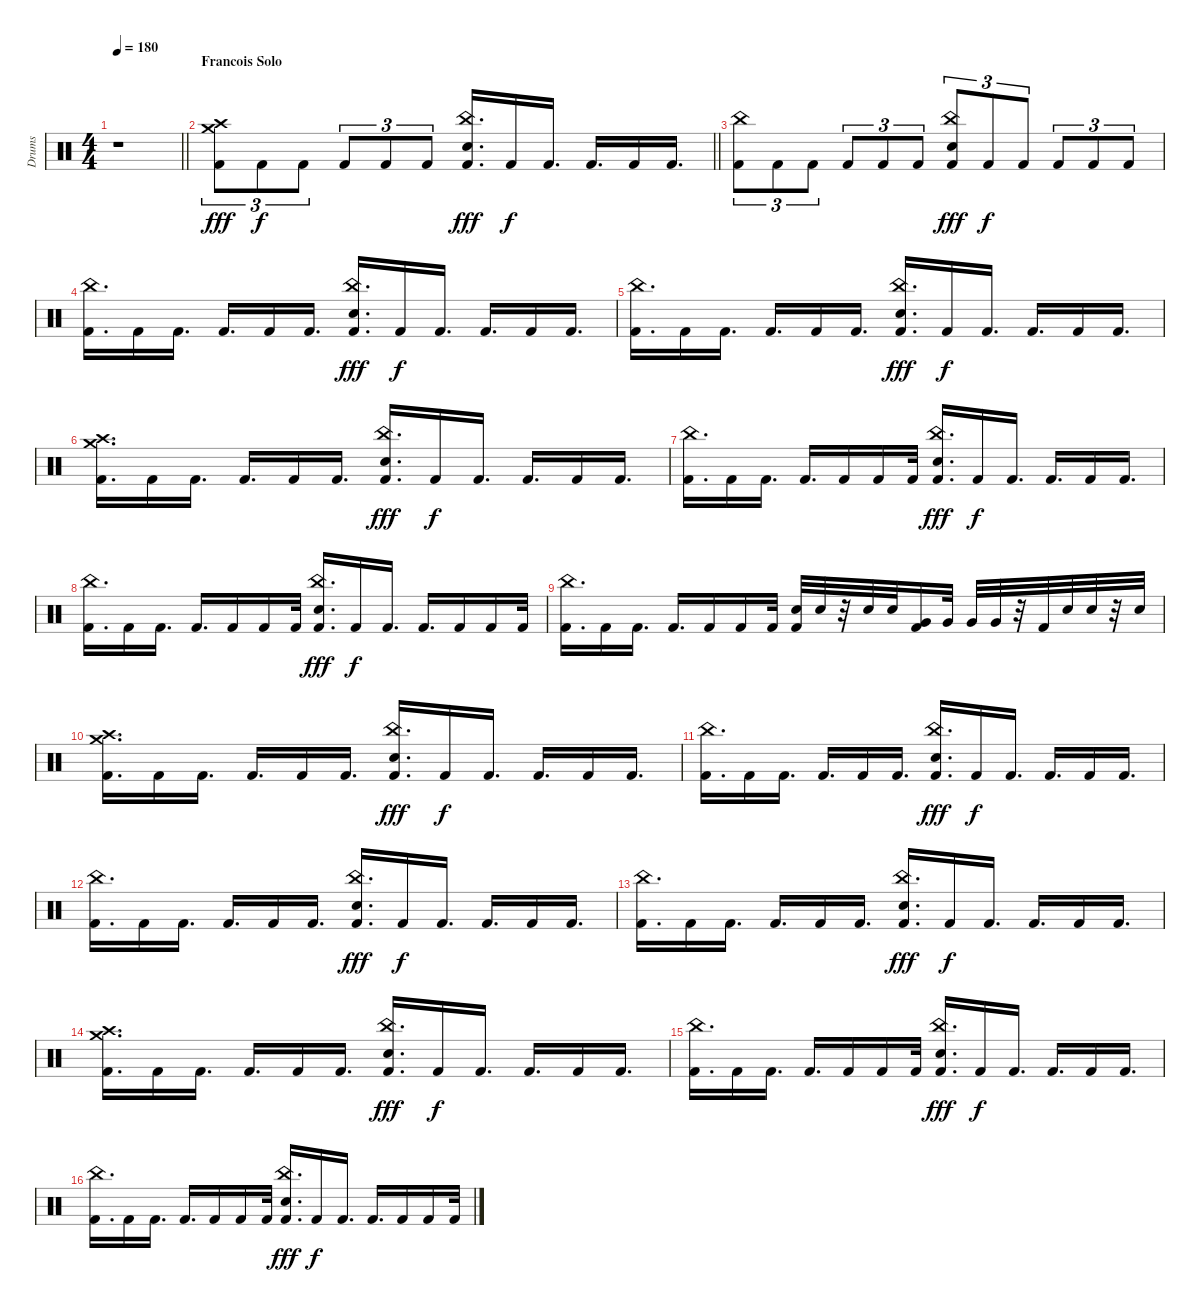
\track ("Drums" "Drums") {instrument percussion}
\staff {score}
\articulation defaults
\ts (4 4)
\tempo 180
\clef neutral
\barLineRight lightlight
\ks c
r.1{dy fff} |
\section ("" "Francois Solo")
\barLineRight lightlight
("Crash high (hit)" "Crash medium (hit)" "Kick (hit) 2").8{tu (3 2)} "Kick (hit) 2".8{tu (3 2) dy f} "Kick (hit) 2".8{tu (3 2)} "Kick (hit) 2".8{tu (3 2)} "Kick (hit) 2".8{tu (3 2)} "Kick (hit) 2".8{tu (3 2)} ("China (hit)" "Snare (hit) 2" "Kick (hit) 2").16{d dy fff} "Kick (hit) 2".16{dy f} "Kick (hit) 2".16{d} "Kick (hit) 2".16{d} "Kick (hit) 2".16 "Kick (hit) 2".16{d} |
("China (hit)" "Kick (hit) 2").8{tu (3 2)} "Kick (hit) 2".8{tu (3 2)} "Kick (hit) 2".8{tu (3 2)} "Kick (hit) 2".8{tu (3 2)} "Kick (hit) 2".8{tu (3 2)} "Kick (hit) 2".8{tu (3 2)} ("China (hit)" "Kick (hit) 2" "Snare (hit) 2").8{tu (3 2) dy fff} "Kick (hit) 2".8{tu (3 2) dy f} "Kick (hit) 2".8{tu (3 2)} "Kick (hit) 2".8{tu (3 2)} "Kick (hit) 2".8{tu (3 2)} "Kick (hit) 2".8{tu (3 2)} |
("China (hit)" "Kick (hit) 2").16{d} "Kick (hit) 2".16 "Kick (hit) 2".16{d} "Kick (hit) 2".16{d} "Kick (hit) 2".16 "Kick (hit) 2".16{d} ("China (hit)" "Snare (hit) 2" "Kick (hit) 2").16{d dy fff} "Kick (hit) 2".16{dy f} "Kick (hit) 2".16{d} "Kick (hit) 2".16{d} "Kick (hit) 2".16 "Kick (hit) 2".16{d} |
("China (hit)" "Kick (hit) 2").16{d} "Kick (hit) 2".16 "Kick (hit) 2".16{d} "Kick (hit) 2".16{d} "Kick (hit) 2".16 "Kick (hit) 2".16{d} ("China (hit)" "Kick (hit) 2" "Snare (hit) 2").16{d dy fff} "Kick (hit) 2".16{dy f} "Kick (hit) 2".16{d} "Kick (hit) 2".16{d} "Kick (hit) 2".16 "Kick (hit) 2".16{d} |
("Crash high (hit)" "Crash medium (hit)" "Kick (hit) 2").16{d} "Kick (hit) 2".16 "Kick (hit) 2".16{d} "Kick (hit) 2".16{d} "Kick (hit) 2".16 "Kick (hit) 2".16{d} ("China (hit)" "Snare (hit) 2" "Kick (hit) 2").16{d dy fff} "Kick (hit) 2".16{dy f} "Kick (hit) 2".16{d} "Kick (hit) 2".16{d} "Kick (hit) 2".16 "Kick (hit) 2".16{d} |
("China (hit)" "Kick (hit) 2").16{d} "Kick (hit) 2".16 "Kick (hit) 2".16{d} "Kick (hit) 2".16{d} "Kick (hit) 2".16 "Kick (hit) 2".16 "Kick (hit) 2".32 ("China (hit)" "Kick (hit) 2" "Snare (hit) 2").16{d dy fff} "Kick (hit) 2".16{dy f} "Kick (hit) 2".16{d} "Kick (hit) 2".16{d} "Kick (hit) 2".16 "Kick (hit) 2".16{d} |
("Kick (hit) 2" "China (hit)").16{d} "Kick (hit) 2".16 "Kick (hit) 2".16{d} "Kick (hit) 2".16{d} "Kick (hit) 2".16 "Kick (hit) 2".16 "Kick (hit) 2".32 ("China (hit)" "Snare (hit) 2" "Kick (hit) 2").16{d dy fff} "Kick (hit) 2".16{dy f} "Kick (hit) 2".16{d} "Kick (hit) 2".16{d} "Kick (hit) 2".16 "Kick (hit) 2".16 "Kick (hit) 2".32 |
("China (hit)" "Kick (hit) 2").16{d} "Kick (hit) 2".16 "Kick (hit) 2".16{d} "Kick (hit) 2".16{d} "Kick (hit) 2".16 "Kick (hit) 2".16 "Kick (hit) 2".32 ("Kick (hit) 2" "Snare (hit) 2").32 "Snare (hit) 2".32 r.32 "Snare (hit) 2".32 "Snare (hit) 2".32 ("Kick (hit) 2" "Very Low Tom (hit)").16 "Very Low Tom (hit)".32 "Very Low Tom (hit)".32 "Very Low Tom (hit)".32 r.32 "Kick (hit) 2".32 "Snare (hit) 2".32 "Snare (hit) 2".32 r.32 "Snare (hit) 2".32 |
("Crash high (hit)" "Crash medium (hit)" "Kick (hit) 2").16{d} "Kick (hit) 2".16 "Kick (hit) 2".16{d} "Kick (hit) 2".16{d} "Kick (hit) 2".16 "Kick (hit) 2".16{d} ("China (hit)" "Snare (hit) 2" "Kick (hit) 2").16{d dy fff} "Kick (hit) 2".16{dy f} "Kick (hit) 2".16{d} "Kick (hit) 2".16{d} "Kick (hit) 2".16 "Kick (hit) 2".16{d} |
("China (hit)" "Kick (hit) 2").16{d} "Kick (hit) 2".16 "Kick (hit) 2".16{d} "Kick (hit) 2".16{d} "Kick (hit) 2".16 "Kick (hit) 2".16{d} ("China (hit)" "Kick (hit) 2" "Snare (hit) 2").16{d dy fff} "Kick (hit) 2".16{dy f} "Kick (hit) 2".16{d} "Kick (hit) 2".16{d} "Kick (hit) 2".16 "Kick (hit) 2".16{d} |
("China (hit)" "Kick (hit) 2").16{d} "Kick (hit) 2".16 "Kick (hit) 2".16{d} "Kick (hit) 2".16{d} "Kick (hit) 2".16 "Kick (hit) 2".16{d} ("China (hit)" "Snare (hit) 2" "Kick (hit) 2").16{d dy fff} "Kick (hit) 2".16{dy f} "Kick (hit) 2".16{d} "Kick (hit) 2".16{d} "Kick (hit) 2".16 "Kick (hit) 2".16{d} |
("China (hit)" "Kick (hit) 2").16{d} "Kick (hit) 2".16 "Kick (hit) 2".16{d} "Kick (hit) 2".16{d} "Kick (hit) 2".16 "Kick (hit) 2".16{d} ("China (hit)" "Kick (hit) 2" "Snare (hit) 2").16{d dy fff} "Kick (hit) 2".16{dy f} "Kick (hit) 2".16{d} "Kick (hit) 2".16{d} "Kick (hit) 2".16 "Kick (hit) 2".16{d} |
("Crash high (hit)" "Crash medium (hit)" "Kick (hit) 2").16{d} "Kick (hit) 2".16 "Kick (hit) 2".16{d} "Kick (hit) 2".16{d} "Kick (hit) 2".16 "Kick (hit) 2".16{d} ("China (hit)" "Snare (hit) 2" "Kick (hit) 2").16{d dy fff} "Kick (hit) 2".16{dy f} "Kick (hit) 2".16{d} "Kick (hit) 2".16{d} "Kick (hit) 2".16 "Kick (hit) 2".16{d} |
("China (hit)" "Kick (hit) 2").16{d} "Kick (hit) 2".16 "Kick (hit) 2".16{d} "Kick (hit) 2".16{d} "Kick (hit) 2".16 "Kick (hit) 2".16 "Kick (hit) 2".32 ("China (hit)" "Kick (hit) 2" "Snare (hit) 2").16{d dy fff} "Kick (hit) 2".16{dy f} "Kick (hit) 2".16{d} "Kick (hit) 2".16{d} "Kick (hit) 2".16 "Kick (hit) 2".16{d} |
("Kick (hit) 2" "China (hit)").16{d} "Kick (hit) 2".16 "Kick (hit) 2".16{d} "Kick (hit) 2".16{d} "Kick (hit) 2".16 "Kick (hit) 2".16 "Kick (hit) 2".32 ("China (hit)" "Snare (hit) 2" "Kick (hit) 2").16{d dy fff} "Kick (hit) 2".16{dy f} "Kick (hit) 2".16{d} "Kick (hit) 2".16{d} "Kick (hit) 2".16 "Kick (hit) 2".16 "Kick (hit) 2".32
